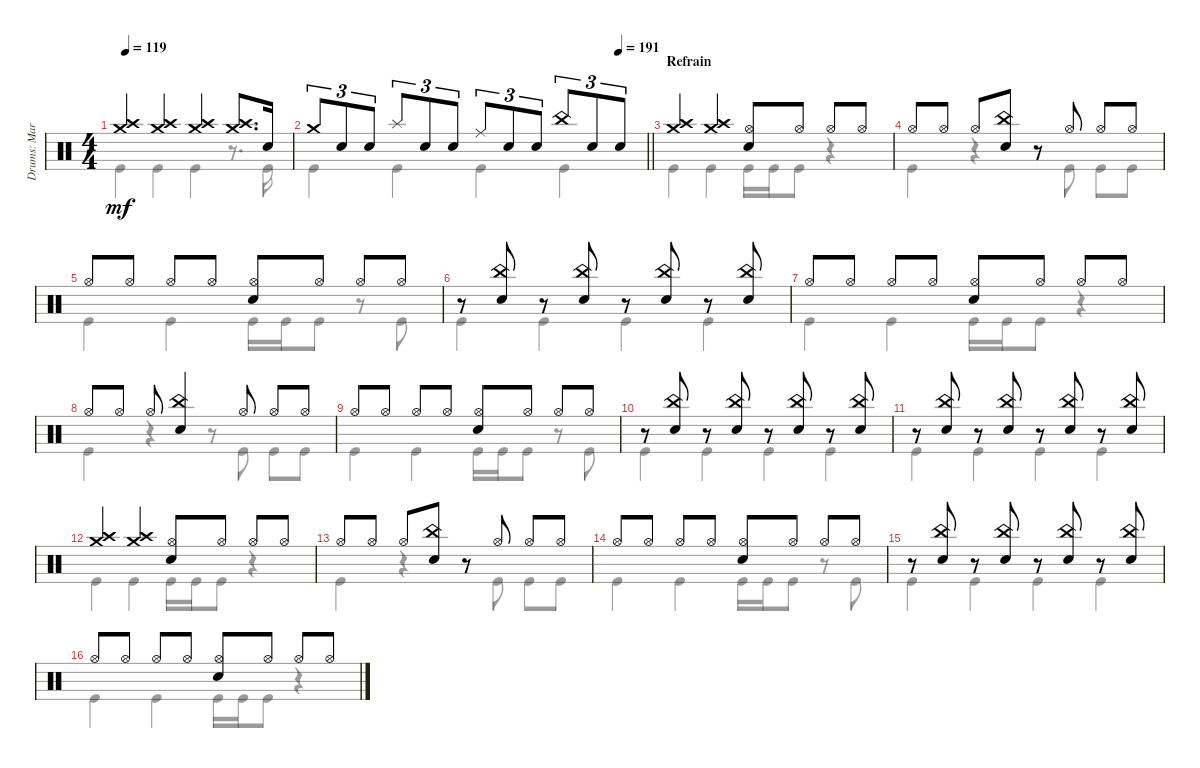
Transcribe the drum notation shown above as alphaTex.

\track ("Drums: Mario Duplantier" "Drums: Mar") {instrument percussion}
\staff {score}
\articulation defaults
\voice
\ts (4 4)
\tempo 119
\clef neutral
\ks c
("Crash medium (hit)" "Crash high (hit)").4{dy mf} ("Crash medium (hit)" "Crash high (hit)").4 ("Crash medium (hit)" "Crash high (hit)").4 ("Crash medium (hit)" "Crash high (hit)").8{d} "Snare (hit) 2".16 |
\tempo (191 0.9166666666666666)
\barLineRight lightlight "Crash medium (hit)".8{tu (3 2)} "Snare (hit) 2".8{tu (3 2)} "Snare (hit) 2".8{tu (3 2)} "Splash (hit)".8{tu (3 2)} "Snare (hit) 2".8{tu (3 2)} "Snare (hit) 2".8{tu (3 2)} "Ride (middle)".8{tu (3 2)} "Snare (hit) 2".8{tu (3 2)} "Snare (hit) 2".8{tu (3 2)} "China (hit)".8{tu (3 2)} "Snare (hit) 2".8{tu (3 2)} "Snare (hit) 2".8{tu (3 2)}
|
\section ("" "Refrain")
("Crash medium (hit)" "Crash high (hit)").4 ("Crash medium (hit)" "Crash high (hit)").4 ("Snare (hit) 2" "Hi-Hat (open)").8 "Hi-Hat (open)".8 "Hi-Hat (open)".8 "Hi-Hat (open)".8 |
"Hi-Hat (open)".8 "Hi-Hat (open)".8 "Hi-Hat (open)".8 ("Snare (hit) 2" "China (hit)").8 r.8 "Hi-Hat (open)".8 "Hi-Hat (open)".8 "Hi-Hat (open)".8 |
"Hi-Hat (open)".8 "Hi-Hat (open)".8 "Hi-Hat (open)".8 "Hi-Hat (open)".8 ("Snare (hit) 2" "Hi-Hat (open)").8 "Hi-Hat (open)".8 "Hi-Hat (open)".8 "Hi-Hat (open)".8 |
r.8 ("Snare (hit) 2" "China (hit)").8 r.8 ("Snare (hit) 2" "China (hit)").8 r.8 ("Snare (hit) 2" "China (hit)").8 r.8 ("Snare (hit) 2" "China (hit)").8 |
"Hi-Hat (open)".8 "Hi-Hat (open)".8 "Hi-Hat (open)".8 "Hi-Hat (open)".8 ("Snare (hit) 2" "Hi-Hat (open)").8 "Hi-Hat (open)".8 "Hi-Hat (open)".8 "Hi-Hat (open)".8 |
"Hi-Hat (open)".8 "Hi-Hat (open)".8 "Hi-Hat (open)".8 ("Snare (hit) 2" "China (hit)").4 "Hi-Hat (open)".8 "Hi-Hat (open)".8 "Hi-Hat (open)".8 |
"Hi-Hat (open)".8 "Hi-Hat (open)".8 "Hi-Hat (open)".8 "Hi-Hat (open)".8 ("Snare (hit) 2" "Hi-Hat (open)").8 "Hi-Hat (open)".8 "Hi-Hat (open)".8 "Hi-Hat (open)".8 |
r.8 ("Snare (hit) 2" "China (hit)").8 r.8 ("Snare (hit) 2" "China (hit)").8 r.8 ("Snare (hit) 2" "China (hit)").8 r.8 ("Snare (hit) 2" "China (hit)").8 |
r.8 ("Snare (hit) 2" "China (hit)").8 r.8 ("Snare (hit) 2" "China (hit)").8 r.8 ("Snare (hit) 2" "China (hit)").8 r.8 ("Snare (hit) 2" "China (hit)").8 |
("Crash medium (hit)" "Crash high (hit)").4 ("Crash medium (hit)" "Crash high (hit)").4 ("Snare (hit) 2" "Hi-Hat (open)").8 "Hi-Hat (open)".8 "Hi-Hat (open)".8 "Hi-Hat (open)".8 |
"Hi-Hat (open)".8 "Hi-Hat (open)".8 "Hi-Hat (open)".8 ("Snare (hit) 2" "China (hit)").8 r.8 "Hi-Hat (open)".8 "Hi-Hat (open)".8 "Hi-Hat (open)".8 |
"Hi-Hat (open)".8 "Hi-Hat (open)".8 "Hi-Hat (open)".8 "Hi-Hat (open)".8 ("Snare (hit) 2" "Hi-Hat (open)").8 "Hi-Hat (open)".8 "Hi-Hat (open)".8 "Hi-Hat (open)".8 |
r.8 ("Snare (hit) 2" "China (hit)").8 r.8 ("Snare (hit) 2" "China (hit)").8 r.8 ("Snare (hit) 2" "China (hit)").8 r.8 ("Snare (hit) 2" "China (hit)").8 |
"Hi-Hat (open)".8 "Hi-Hat (open)".8 "Hi-Hat (open)".8 "Hi-Hat (open)".8 ("Snare (hit) 2" "Hi-Hat (open)").8 "Hi-Hat (open)".8 "Hi-Hat (open)".8 "Hi-Hat (open)".8
\voice
\clef neutral
\ottava regular
\simile none
\ks c "Kick (hit)".4{dy mf} "Kick (hit)".4 "Kick (hit)".4
r.8{d} "Kick (hit)".16 |
\barLineRight lightlight "Kick (hit)".4 "Kick (hit)".4 "Kick (hit)".4 "Kick (hit)".4
|
"Kick (hit)".4 "Kick (hit)".4 "Kick (hit)".16 "Kick (hit)".16 "Kick (hit)".8 r.4 |
"Kick (hit)".4 r.4 r.8 "Kick (hit)".8 "Kick (hit)".8 "Kick (hit)".8 |
"Kick (hit)".4 "Kick (hit)".4 "Kick (hit)".16 "Kick (hit)".16 "Kick (hit)".8 r.8 "Kick (hit)".8 |
"Kick (hit)".4 "Kick (hit)".4 "Kick (hit)".4 "Kick (hit)".4 |
"Kick (hit)".4 "Kick (hit)".4 "Kick (hit)".16 "Kick (hit)".16 "Kick (hit)".8 r.4 |
"Kick (hit)".4 r.4 r.8 "Kick (hit)".8 "Kick (hit)".8 "Kick (hit)".8 |
"Kick (hit)".4 "Kick (hit)".4 "Kick (hit)".16 "Kick (hit)".16 "Kick (hit)".8 r.8 "Kick (hit)".8 |
"Kick (hit)".4 "Kick (hit)".4 "Kick (hit)".4 "Kick (hit)".4 |
"Kick (hit)".4 "Kick (hit)".4 "Kick (hit)".4 "Kick (hit)".4 |
"Kick (hit)".4 "Kick (hit)".4 "Kick (hit)".16 "Kick (hit)".16 "Kick (hit)".8 r.4 |
"Kick (hit)".4 r.4 r.8 "Kick (hit)".8 "Kick (hit)".8 "Kick (hit)".8 |
"Kick (hit)".4 "Kick (hit)".4 "Kick (hit)".16 "Kick (hit)".16 "Kick (hit)".8 r.8 "Kick (hit)".8 |
"Kick (hit)".4 "Kick (hit)".4 "Kick (hit)".4 "Kick (hit)".4 |
"Kick (hit)".4 "Kick (hit)".4 "Kick (hit)".16 "Kick (hit)".16 "Kick (hit)".8 r.4
